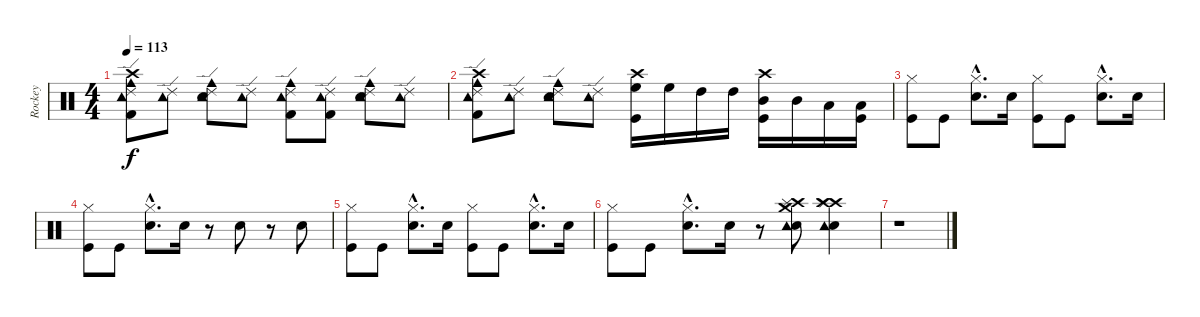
\track ("Rockey" "Rockey") {instrument percussion}
\staff {score}
\articulation defaults
\ts (4 4)
\tempo 113
\clef neutral
\ks c
("Ride (edge) 2" "Crash high (hit)" "Cowbell medium (hit)" "Kick (hit) 2" "Tambourine (hit)").8{dy f} ("Ride (edge) 2" "Tambourine (hit)").8 ("Ride (edge) 2" "Cowbell medium (hit)" "Snare (hit) 2" "Tambourine (hit)").8 ("Ride (edge) 2" "Tambourine (hit)").8 ("Ride (edge) 2" "Cowbell medium (hit)" "Kick (hit) 2" "Tambourine (hit)").8 ("Ride (edge) 2" "Kick (hit) 2" "Tambourine (hit)").8 ("Ride (edge) 2" "Cowbell medium (hit)" "Snare (hit) 2" "Tambourine (hit)").8 ("Ride (edge) 2" "Tambourine (hit)").8 |
("Ride (edge) 2" "Crash high (hit)" "Cowbell medium (hit)" "Kick (hit) 2" "Tambourine (hit)").8 ("Ride (edge) 2" "Tambourine (hit)").8 ("Ride (edge) 2" "Cowbell medium (hit)" "Snare (hit) 2" "Tambourine (hit)").8 ("Ride (edge) 2" "Tambourine (hit)").8 ("Crash high (hit)" "High Floor Tom (hit)" "Kick (hit)").16 "High Floor Tom (hit)".16 "High Tom (hit)".16 "High Tom (hit)".16 ("Crash high (hit)" "Mid Tom (hit)" "Kick (hit)").16 "Mid Tom (hit)".16 "Low Tom (hit)".16 ("Low Tom (hit)" "Kick (hit)").16 |
("Hi-Hat (closed)" "Kick (hit)").8 "Kick (hit)".8 ("Hi-Hat (closed)"{hac} "Snare (hit) 2"{hac}).8{d} "Snare (hit) 2".16 ("Hi-Hat (closed)" "Kick (hit)").8 "Kick (hit)".8 ("Hi-Hat (closed)"{hac} "Snare (hit) 2"{hac}).8{d} "Snare (hit) 2".16 |
("Hi-Hat (closed)" "Kick (hit)").8 "Kick (hit)".8 ("Hi-Hat (closed)"{hac} "Snare (hit) 2"{hac}).8{d} "Snare (hit) 2".16 r.8 "Snare (hit) 2".8 r.8 "Snare (hit) 2".8 |
("Hi-Hat (closed)" "Kick (hit)").8 "Kick (hit)".8 ("Hi-Hat (closed)"{hac} "Snare (hit) 2"{hac}).8{d} "Snare (hit) 2".16 ("Hi-Hat (closed)" "Kick (hit)").8 "Kick (hit)".8 ("Hi-Hat (closed)"{hac} "Snare (hit) 2"{hac}).8{d} "Snare (hit) 2".16 |
("Hi-Hat (closed)" "Kick (hit)").8 "Kick (hit)".8 ("Hi-Hat (closed)"{hac} "Snare (hit) 2"{hac}).8{d} "Snare (hit) 2".16 r.8 ("Crash high (hit)" "Splash (hit)" "Crash medium (hit)" "Snare (hit) 2" "Tambourine (hit)").8 ("Crash high (hit)" "Splash (hit)" "Crash high (hit)" "Snare (hit) 2" "Tambourine (hit)").4 |
r.1
